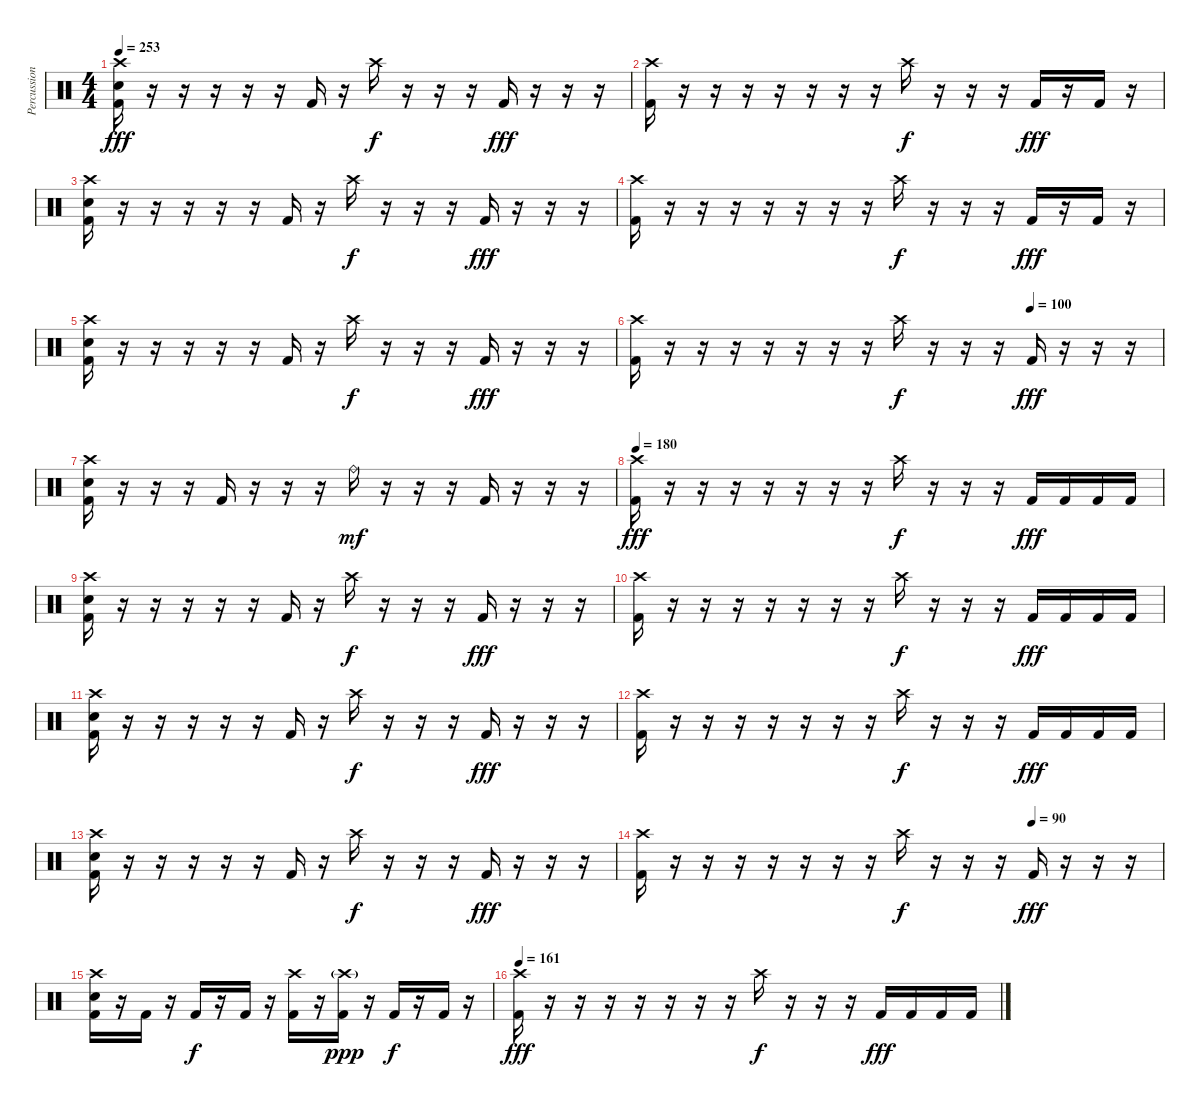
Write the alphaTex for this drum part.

\track ("Percussion" "Percussion") {instrument percussion}
\staff {score}
\articulation defaults
\ts (4 4)
\tempo 253
\clef neutral
\ks c
("Crash high (hit)" "Electric Snare (hit)" "Kick (hit) 2").16{dy fff} r.16 r.16 r.16 r.16 r.16 "Kick (hit) 2".16 r.16 "Crash high (hit)".16{dy f} r.16 r.16 r.16 "Kick (hit) 2".16{dy fff} r.16 r.16 r.16 |
("Crash high (hit)" "Kick (hit) 2").16 r.16 r.16 r.16 r.16 r.16 r.16 r.16 "Crash high (hit)".16{dy f} r.16 r.16 r.16 "Kick (hit) 2".16{dy fff} r.16 "Kick (hit) 2".16 r.16 |
("Crash high (hit)" "Electric Snare (hit)" "Kick (hit) 2").16 r.16 r.16 r.16 r.16 r.16 "Kick (hit) 2".16 r.16 "Crash high (hit)".16{dy f} r.16 r.16 r.16 "Kick (hit) 2".16{dy fff} r.16 r.16 r.16 |
("Crash high (hit)" "Kick (hit) 2").16 r.16 r.16 r.16 r.16 r.16 r.16 r.16 "Crash high (hit)".16{dy f} r.16 r.16 r.16 "Kick (hit) 2".16{dy fff} r.16 "Kick (hit) 2".16 r.16 |
("Crash high (hit)" "Electric Snare (hit)" "Kick (hit) 2").16 r.16 r.16 r.16 r.16 r.16 "Kick (hit) 2".16 r.16 "Crash high (hit)".16{dy f} r.16 r.16 r.16 "Kick (hit) 2".16{dy fff} r.16 r.16 r.16 |
\tempo (100 0.75)
("Crash high (hit)" "Kick (hit) 2").16 r.16 r.16 r.16 r.16 r.16 r.16 r.16 "Crash high (hit)".16{dy f} r.16 r.16 r.16 "Kick (hit) 2".16{dy fff} r.16 r.16 r.16 |
("Crash high (hit)" "Electric Snare (hit)" "Kick (hit) 2").16 r.16 r.16 r.16 "Kick (hit) 2".16 r.16 r.16 r.16 "Ride (bell)".16{dy mf} r.16 r.16 r.16 "Kick (hit) 2".16 r.16 r.16 r.16 |
\tempo 180
("Crash high (hit)" "Kick (hit) 2").16{dy fff} r.16 r.16 r.16 r.16 r.16 r.16 r.16 "Crash high (hit)".16{dy f} r.16 r.16 r.16 "Kick (hit) 2".16{dy fff} "Kick (hit) 2".16 "Kick (hit) 2".16 "Kick (hit) 2".16 |
("Crash high (hit)" "Electric Snare (hit)" "Kick (hit) 2").16 r.16 r.16 r.16 r.16 r.16 "Kick (hit) 2".16 r.16 "Crash high (hit)".16{dy f} r.16 r.16 r.16 "Kick (hit) 2".16{dy fff} r.16 r.16 r.16 |
("Crash high (hit)" "Kick (hit) 2").16 r.16 r.16 r.16 r.16 r.16 r.16 r.16 "Crash high (hit)".16{dy f} r.16 r.16 r.16 "Kick (hit) 2".16{dy fff} "Kick (hit) 2".16 "Kick (hit) 2".16 "Kick (hit) 2".16 |
("Crash high (hit)" "Electric Snare (hit)" "Kick (hit) 2").16 r.16 r.16 r.16 r.16 r.16 "Kick (hit) 2".16 r.16 "Crash high (hit)".16{dy f} r.16 r.16 r.16 "Kick (hit) 2".16{dy fff} r.16 r.16 r.16 |
("Crash high (hit)" "Kick (hit) 2").16 r.16 r.16 r.16 r.16 r.16 r.16 r.16 "Crash high (hit)".16{dy f} r.16 r.16 r.16 "Kick (hit) 2".16{dy fff} "Kick (hit) 2".16 "Kick (hit) 2".16 "Kick (hit) 2".16 |
("Crash high (hit)" "Electric Snare (hit)" "Kick (hit) 2").16 r.16 r.16 r.16 r.16 r.16 "Kick (hit) 2".16 r.16 "Crash high (hit)".16{dy f} r.16 r.16 r.16 "Kick (hit) 2".16{dy fff} r.16 r.16 r.16 |
\tempo (90 0.75)
("Crash high (hit)" "Kick (hit) 2").16 r.16 r.16 r.16 r.16 r.16 r.16 r.16 "Crash high (hit)".16{dy f} r.16 r.16 r.16 "Kick (hit) 2".16{dy fff} r.16 r.16 r.16 |
("Crash high (hit)" "Electric Snare (hit)" "Kick (hit) 2").16 r.16 "Kick (hit) 2".16 r.16 "Kick (hit) 2".16{dy f} r.16 "Kick (hit) 2".16 r.16 ("Crash high (hit)" "Kick (hit) 2").16 r.16 ("Crash high (hit)"{g} "Kick (hit) 2").16{dy ppp} r.16 "Kick (hit) 2".16{dy f} r.16 "Kick (hit) 2".16 r.16 |
\tempo 161
("Crash high (hit)" "Kick (hit) 2").16{dy fff} r.16 r.16 r.16 r.16 r.16 r.16 r.16 "Crash high (hit)".16{dy f} r.16 r.16 r.16 "Kick (hit) 2".16{dy fff} "Kick (hit) 2".16 "Kick (hit) 2".16 "Kick (hit) 2".16
